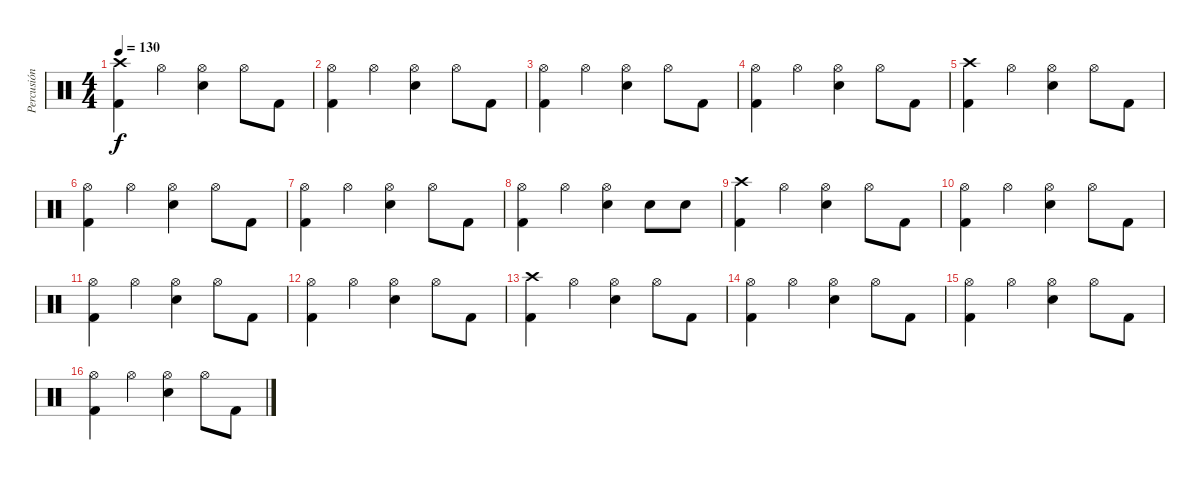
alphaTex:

\track ("Percusión" "Percusión") {instrument percussion}
\staff {score}
\articulation defaults
\ts (4 4)
\tempo 130
\clef neutral
\ks c
("Crash high (hit)" "Kick (hit) 2").4{dy f} "Hi-Hat (open)".4 ("Hi-Hat (open)" "Electric Snare (hit)").4 "Hi-Hat (open)".8 "Kick (hit) 2".8 |
("Hi-Hat (open)" "Kick (hit) 2").4 "Hi-Hat (open)".4 ("Hi-Hat (open)" "Electric Snare (hit)").4 "Hi-Hat (open)".8 "Kick (hit) 2".8 |
("Hi-Hat (open)" "Kick (hit) 2").4 "Hi-Hat (open)".4 ("Hi-Hat (open)" "Electric Snare (hit)").4 "Hi-Hat (open)".8 "Kick (hit) 2".8 |
("Hi-Hat (open)" "Kick (hit) 2").4 "Hi-Hat (open)".4 ("Hi-Hat (open)" "Electric Snare (hit)").4 "Hi-Hat (open)".8 "Kick (hit) 2".8 |
("Crash high (hit)" "Kick (hit) 2").4 "Hi-Hat (open)".4 ("Hi-Hat (open)" "Electric Snare (hit)").4 "Hi-Hat (open)".8 "Kick (hit) 2".8 |
("Hi-Hat (open)" "Kick (hit) 2").4 "Hi-Hat (open)".4 ("Hi-Hat (open)" "Electric Snare (hit)").4 "Hi-Hat (open)".8 "Kick (hit) 2".8 |
("Hi-Hat (open)" "Kick (hit) 2").4 "Hi-Hat (open)".4 ("Hi-Hat (open)" "Electric Snare (hit)").4 "Hi-Hat (open)".8 "Kick (hit) 2".8 |
("Hi-Hat (open)" "Kick (hit) 2").4 "Hi-Hat (open)".4 ("Hi-Hat (open)" "Electric Snare (hit)").4 "Electric Snare (hit)".8 "Electric Snare (hit)".8 |
("Crash high (hit)" "Kick (hit) 2").4 "Hi-Hat (open)".4 ("Hi-Hat (open)" "Electric Snare (hit)").4 "Hi-Hat (open)".8 "Kick (hit) 2".8 |
("Hi-Hat (open)" "Kick (hit) 2").4 "Hi-Hat (open)".4 ("Hi-Hat (open)" "Electric Snare (hit)").4 "Hi-Hat (open)".8 "Kick (hit) 2".8 |
("Hi-Hat (open)" "Kick (hit) 2").4 "Hi-Hat (open)".4 ("Hi-Hat (open)" "Electric Snare (hit)").4 "Hi-Hat (open)".8 "Kick (hit) 2".8 |
("Hi-Hat (open)" "Kick (hit) 2").4 "Hi-Hat (open)".4 ("Hi-Hat (open)" "Electric Snare (hit)").4 "Hi-Hat (open)".8 "Kick (hit) 2".8 |
("Crash high (hit)" "Kick (hit) 2").4 "Hi-Hat (open)".4 ("Hi-Hat (open)" "Electric Snare (hit)").4 "Hi-Hat (open)".8 "Kick (hit) 2".8 |
("Hi-Hat (open)" "Kick (hit) 2").4 "Hi-Hat (open)".4 ("Hi-Hat (open)" "Electric Snare (hit)").4 "Hi-Hat (open)".8 "Kick (hit) 2".8 |
("Hi-Hat (open)" "Kick (hit) 2").4 "Hi-Hat (open)".4 ("Hi-Hat (open)" "Electric Snare (hit)").4 "Hi-Hat (open)".8 "Kick (hit) 2".8 |
("Hi-Hat (open)" "Kick (hit) 2").4 "Hi-Hat (open)".4 ("Hi-Hat (open)" "Electric Snare (hit)").4 "Hi-Hat (open)".8 "Kick (hit) 2".8
